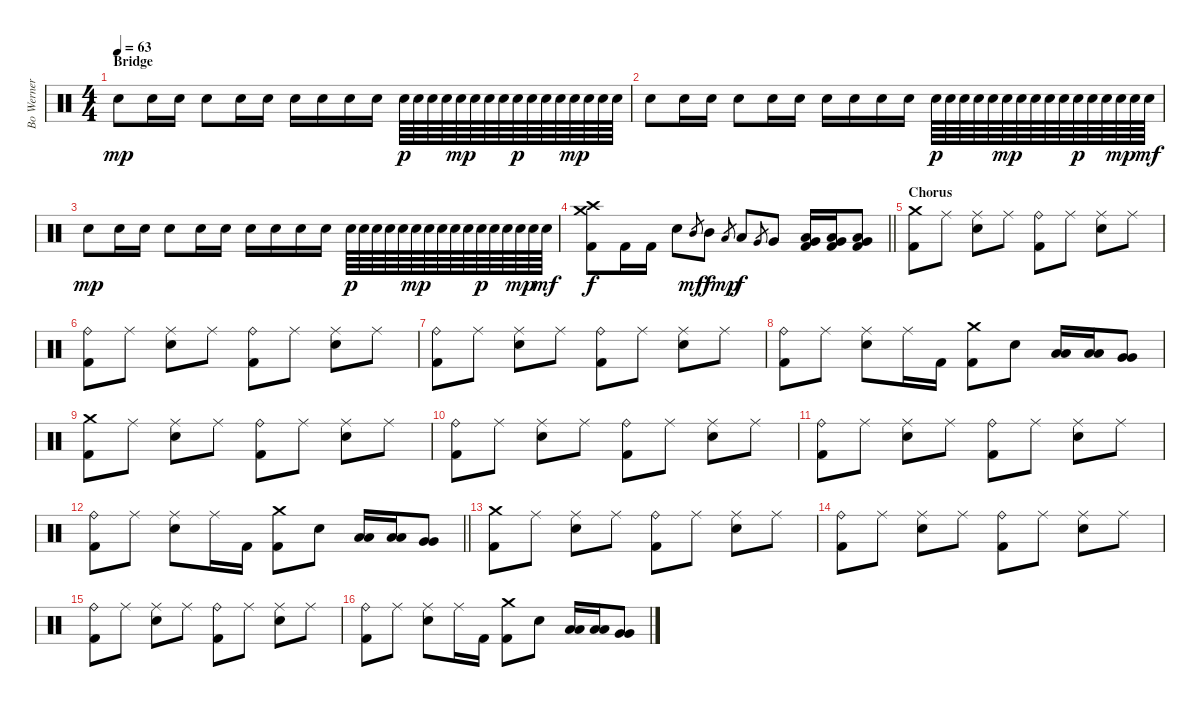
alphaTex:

\track ("Bo Werner " "Bo Werner ") {instrument percussion}
\staff {score}
\articulation defaults
\ts (4 4)
\section ("" "Bridge")
\tempo 63
\clef neutral
\ks c "Electric Snare (hit)".8{dy mp} "Electric Snare (hit)".16 "Electric Snare (hit)".16 "Electric Snare (hit)".8 "Electric Snare (hit)".16 "Electric Snare (hit)".16 "Electric Snare (hit)".16 "Electric Snare (hit)".16 "Electric Snare (hit)".16 "Electric Snare (hit)".16 "Electric Snare (hit)".64{dy p} "Electric Snare (hit)".64 "Electric Snare (hit)".64 "Electric Snare (hit)".64 "Electric Snare (hit)".64{dy mp} "Electric Snare (hit)".64 "Electric Snare (hit)".64 "Electric Snare (hit)".64 "Electric Snare (hit)".64{dy p} "Electric Snare (hit)".64 "Electric Snare (hit)".64 "Electric Snare (hit)".64 "Electric Snare (hit)".64{dy mp} "Electric Snare (hit)".64 "Electric Snare (hit)".64 "Electric Snare (hit)".64
|
"Electric Snare (hit)".8 "Electric Snare (hit)".16 "Electric Snare (hit)".16 "Electric Snare (hit)".8 "Electric Snare (hit)".16 "Electric Snare (hit)".16 "Electric Snare (hit)".16 "Electric Snare (hit)".16 "Electric Snare (hit)".16 "Electric Snare (hit)".16 "Electric Snare (hit)".64{dy p} "Electric Snare (hit)".64 "Electric Snare (hit)".64 "Electric Snare (hit)".64 "Electric Snare (hit)".64 "Electric Snare (hit)".64{dy mp} "Electric Snare (hit)".64 "Electric Snare (hit)".64 "Electric Snare (hit)".64 "Electric Snare (hit)".64 "Electric Snare (hit)".64{dy p} "Electric Snare (hit)".64 "Electric Snare (hit)".64 "Electric Snare (hit)".64{dy mp} "Electric Snare (hit)".64 "Electric Snare (hit)".64{dy mf} |
"Electric Snare (hit)".8{dy mp} "Electric Snare (hit)".16 "Electric Snare (hit)".16 "Electric Snare (hit)".8 "Electric Snare (hit)".16 "Electric Snare (hit)".16 "Electric Snare (hit)".16 "Electric Snare (hit)".16 "Electric Snare (hit)".16 "Electric Snare (hit)".16 "Electric Snare (hit)".64{dy p} "Electric Snare (hit)".64 "Electric Snare (hit)".64 "Electric Snare (hit)".64 "Electric Snare (hit)".64 "Electric Snare (hit)".64{dy mp} "Electric Snare (hit)".64 "Electric Snare (hit)".64 "Electric Snare (hit)".64 "Electric Snare (hit)".64 "Electric Snare (hit)".64{dy p} "Electric Snare (hit)".64 "Electric Snare (hit)".64 "Electric Snare (hit)".64{dy mp} "Electric Snare (hit)".64 "Electric Snare (hit)".64{dy mf} |
\barLineRight lightlight
("Crash medium (hit)" "Crash high (hit)" "Kick (hit) 2").8{dy f} "Kick (hit) 2".16 "Kick (hit) 2".16 "Snare (hit) 2".8 "Mid Tom (hit)".8{gr dy mf} "Mid Tom (hit)".8{dy f} "Low Tom (hit)".8{gr dy mp} "Low Tom (hit)".8{dy f} "Very Low Tom (hit)".8{gr} "Very Low Tom (hit)".8 ("Low Floor Tom (hit)" "Very Low Tom (hit)" "Kick (hit) 2").16 ("Low Floor Tom (hit)" "Very Low Tom (hit)" "Kick (hit) 2").16 ("Low Floor Tom (hit)" "Very Low Tom (hit)" "Kick (hit) 2").8 |
\section ("" "Chorus")
("Crash medium (hit)" "Kick (hit) 2").8 "Ride (middle)".8 ("Ride (middle)" "Electric Snare (hit)").8 "Ride (middle)".8 ("Ride (bell)" "Kick (hit) 2").8 "Ride (middle)".8 ("Ride (middle)" "Electric Snare (hit)").8 "Ride (middle)".8 |
("Ride (bell)" "Kick (hit) 2").8 "Ride (middle)".8 ("Ride (middle)" "Electric Snare (hit)").8 "Ride (middle)".8 ("Ride (bell)" "Kick (hit) 2").8 "Ride (middle)".8 ("Ride (middle)" "Electric Snare (hit)").8 "Ride (middle)".8 |
("Ride (bell)" "Kick (hit) 2").8 "Ride (middle)".8 ("Ride (middle)" "Electric Snare (hit)").8 "Ride (middle)".8 ("Ride (bell)" "Kick (hit) 2").8 "Ride (middle)".8 ("Ride (middle)" "Electric Snare (hit)").8 "Ride (middle)".8 |
("Ride (bell)" "Kick (hit) 2").8 "Ride (middle)".8 ("Ride (middle)" "Electric Snare (hit)").8 "Ride (middle)".16 "Kick (hit) 2".16 ("Crash medium (hit)" "Kick (hit) 2").8 "Electric Snare (hit)".8 ("Low Tom (hit)" "Low Tom (hit)").16 ("Low Tom (hit)" "Low Tom (hit)").16 ("Very Low Tom (hit)" "Very Low Tom (hit)").8 |
("Crash medium (hit)" "Kick (hit) 2").8 "Ride (middle)".8 ("Ride (middle)" "Electric Snare (hit)").8 "Ride (middle)".8 ("Ride (bell)" "Kick (hit) 2").8 "Ride (middle)".8 ("Ride (middle)" "Electric Snare (hit)").8 "Ride (middle)".8 |
("Ride (bell)" "Kick (hit) 2").8 "Ride (middle)".8 ("Ride (middle)" "Electric Snare (hit)").8 "Ride (middle)".8 ("Ride (bell)" "Kick (hit) 2").8 "Ride (middle)".8 ("Ride (middle)" "Electric Snare (hit)").8 "Ride (middle)".8 |
("Ride (bell)" "Kick (hit) 2").8 "Ride (middle)".8 ("Ride (middle)" "Electric Snare (hit)").8 "Ride (middle)".8 ("Ride (bell)" "Kick (hit) 2").8 "Ride (middle)".8 ("Ride (middle)" "Electric Snare (hit)").8 "Ride (middle)".8 |
\barLineRight lightlight
("Ride (bell)" "Kick (hit) 2").8 "Ride (middle)".8 ("Ride (middle)" "Electric Snare (hit)").8 "Ride (middle)".16 "Kick (hit) 2".16 ("Crash medium (hit)" "Kick (hit) 2").8 "Electric Snare (hit)".8 ("Low Tom (hit)" "Low Tom (hit)").16 ("Low Tom (hit)" "Low Tom (hit)").16 ("Very Low Tom (hit)" "Very Low Tom (hit)").8 |
("Crash medium (hit)" "Kick (hit) 2").8 "Ride (middle)".8 ("Ride (middle)" "Electric Snare (hit)").8 "Ride (middle)".8 ("Ride (bell)" "Kick (hit) 2").8 "Ride (middle)".8 ("Ride (middle)" "Electric Snare (hit)").8 "Ride (middle)".8 |
("Ride (bell)" "Kick (hit) 2").8 "Ride (middle)".8 ("Ride (middle)" "Electric Snare (hit)").8 "Ride (middle)".8 ("Ride (bell)" "Kick (hit) 2").8 "Ride (middle)".8 ("Ride (middle)" "Electric Snare (hit)").8 "Ride (middle)".8 |
("Ride (bell)" "Kick (hit) 2").8 "Ride (middle)".8 ("Ride (middle)" "Electric Snare (hit)").8 "Ride (middle)".8 ("Ride (bell)" "Kick (hit) 2").8 "Ride (middle)".8 ("Ride (middle)" "Electric Snare (hit)").8 "Ride (middle)".8 |
("Ride (bell)" "Kick (hit) 2").8 "Ride (middle)".8 ("Ride (middle)" "Electric Snare (hit)").8 "Ride (middle)".16 "Kick (hit) 2".16 ("Crash medium (hit)" "Kick (hit) 2").8 "Electric Snare (hit)".8 ("Low Tom (hit)" "Low Tom (hit)").16 ("Low Tom (hit)" "Low Tom (hit)").16 ("Very Low Tom (hit)" "Very Low Tom (hit)").8
